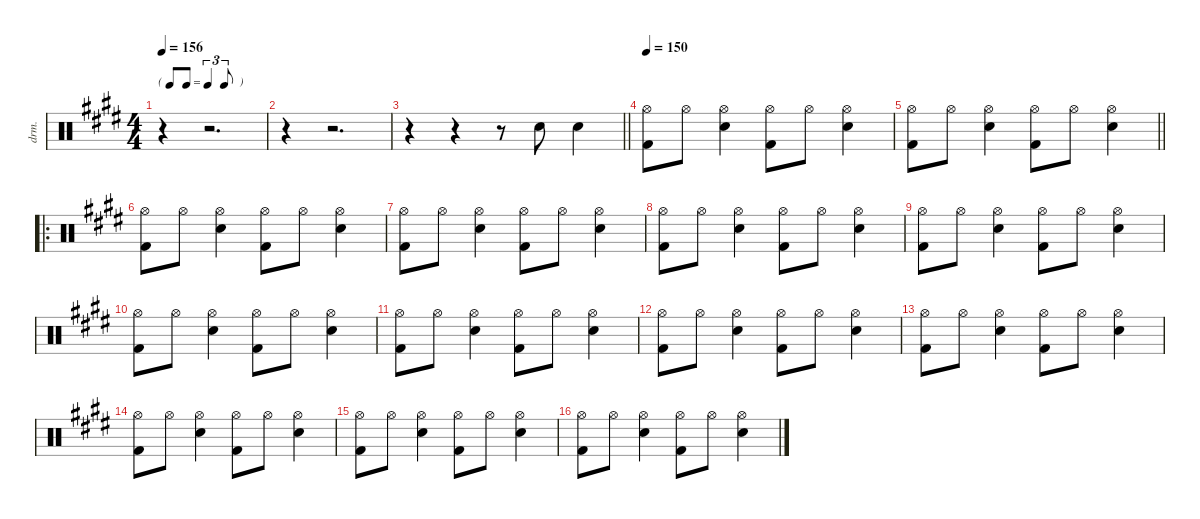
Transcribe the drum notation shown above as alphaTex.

\defaultSystemsLayout 4
\hideDynamics
\bracketExtendMode nobrackets
\otherSystemsTrackNameOrientation horizontal
\track ("Percussion" "drm.") {instrument percussion}
\staff {score}
\articulation defaults
\ts (4 4)
\beaming (8 2 2 2 2)
\tf triplet8th
\tempo 156
\clef neutral
\ks e
r.4{dy f} r.2{d} |
r.4 r.2{d} |
\barLineRight lightlight
r.4 r.4 r.8 "Snare (hit) 2"{acc forcenatural}.8 "Snare (hit) 2"{acc forcenatural}.4 |
\tempo 150
("Hi-Hat (open)"{acc forcenatural} "Kick (hit) 2"{acc forcenatural}).8{dy mf} "Hi-Hat (open)"{acc forcenatural}.8 ("Hi-Hat (open)"{acc forcenatural} "Snare (hit) 2"{acc forcenatural}).4 ("Hi-Hat (open)"{acc forcenatural} "Kick (hit) 2"{acc forcenatural}).8 "Hi-Hat (open)"{acc forcenatural}.8 ("Hi-Hat (open)"{acc forcenatural} "Snare (hit) 2"{acc forcenatural}).4 |
\barLineRight lightlight
("Hi-Hat (open)"{acc forcenatural} "Kick (hit) 2"{acc forcenatural}).8 "Hi-Hat (open)"{acc forcenatural}.8 ("Hi-Hat (open)"{acc forcenatural} "Snare (hit) 2"{acc forcenatural}).4 ("Hi-Hat (open)"{acc forcenatural} "Kick (hit) 2"{acc forcenatural}).8 "Hi-Hat (open)"{acc forcenatural}.8 ("Hi-Hat (open)"{acc forcenatural} "Snare (hit) 2"{acc forcenatural}).4 |
\ro
("Hi-Hat (open)"{acc forcenatural} "Kick (hit) 2"{acc forcenatural}).8 "Hi-Hat (open)"{acc forcenatural}.8 ("Hi-Hat (open)"{acc forcenatural} "Snare (hit) 2"{acc forcenatural}).4 ("Hi-Hat (open)"{acc forcenatural} "Kick (hit) 2"{acc forcenatural}).8 "Hi-Hat (open)"{acc forcenatural}.8 ("Hi-Hat (open)"{acc forcenatural} "Snare (hit) 2"{acc forcenatural}).4 |
("Hi-Hat (open)"{acc forcenatural} "Kick (hit) 2"{acc forcenatural}).8 "Hi-Hat (open)"{acc forcenatural}.8 ("Hi-Hat (open)"{acc forcenatural} "Snare (hit) 2"{acc forcenatural}).4 ("Hi-Hat (open)"{acc forcenatural} "Kick (hit) 2"{acc forcenatural}).8 "Hi-Hat (open)"{acc forcenatural}.8 ("Hi-Hat (open)"{acc forcenatural} "Snare (hit) 2"{acc forcenatural}).4 |
("Hi-Hat (open)"{acc forcenatural} "Kick (hit) 2"{acc forcenatural}).8 "Hi-Hat (open)"{acc forcenatural}.8 ("Hi-Hat (open)"{acc forcenatural} "Snare (hit) 2"{acc forcenatural}).4 ("Hi-Hat (open)"{acc forcenatural} "Kick (hit) 2"{acc forcenatural}).8 "Hi-Hat (open)"{acc forcenatural}.8 ("Hi-Hat (open)"{acc forcenatural} "Snare (hit) 2"{acc forcenatural}).4 |
("Hi-Hat (open)"{acc forcenatural} "Kick (hit) 2"{acc forcenatural}).8 "Hi-Hat (open)"{acc forcenatural}.8 ("Hi-Hat (open)"{acc forcenatural} "Snare (hit) 2"{acc forcenatural}).4 ("Hi-Hat (open)"{acc forcenatural} "Kick (hit) 2"{acc forcenatural}).8 "Hi-Hat (open)"{acc forcenatural}.8 ("Hi-Hat (open)"{acc forcenatural} "Snare (hit) 2"{acc forcenatural}).4 |
("Hi-Hat (open)"{acc forcenatural} "Kick (hit) 2"{acc forcenatural}).8 "Hi-Hat (open)"{acc forcenatural}.8 ("Hi-Hat (open)"{acc forcenatural} "Snare (hit) 2"{acc forcenatural}).4 ("Hi-Hat (open)"{acc forcenatural} "Kick (hit) 2"{acc forcenatural}).8 "Hi-Hat (open)"{acc forcenatural}.8 ("Hi-Hat (open)"{acc forcenatural} "Snare (hit) 2"{acc forcenatural}).4 |
("Hi-Hat (open)"{acc forcenatural} "Kick (hit) 2"{acc forcenatural}).8 "Hi-Hat (open)"{acc forcenatural}.8 ("Hi-Hat (open)"{acc forcenatural} "Snare (hit) 2"{acc forcenatural}).4 ("Hi-Hat (open)"{acc forcenatural} "Kick (hit) 2"{acc forcenatural}).8 "Hi-Hat (open)"{acc forcenatural}.8 ("Hi-Hat (open)"{acc forcenatural} "Snare (hit) 2"{acc forcenatural}).4 |
("Hi-Hat (open)"{acc forcenatural} "Kick (hit) 2"{acc forcenatural}).8 "Hi-Hat (open)"{acc forcenatural}.8 ("Hi-Hat (open)"{acc forcenatural} "Snare (hit) 2"{acc forcenatural}).4 ("Hi-Hat (open)"{acc forcenatural} "Kick (hit) 2"{acc forcenatural}).8 "Hi-Hat (open)"{acc forcenatural}.8 ("Hi-Hat (open)"{acc forcenatural} "Snare (hit) 2"{acc forcenatural}).4 |
("Hi-Hat (open)"{acc forcenatural} "Kick (hit) 2"{acc forcenatural}).8 "Hi-Hat (open)"{acc forcenatural}.8 ("Hi-Hat (open)"{acc forcenatural} "Snare (hit) 2"{acc forcenatural}).4 ("Hi-Hat (open)"{acc forcenatural} "Kick (hit) 2"{acc forcenatural}).8 "Hi-Hat (open)"{acc forcenatural}.8 ("Hi-Hat (open)"{acc forcenatural} "Snare (hit) 2"{acc forcenatural}).4 |
("Hi-Hat (open)"{acc forcenatural} "Kick (hit) 2"{acc forcenatural}).8 "Hi-Hat (open)"{acc forcenatural}.8 ("Hi-Hat (open)"{acc forcenatural} "Snare (hit) 2"{acc forcenatural}).4 ("Hi-Hat (open)"{acc forcenatural} "Kick (hit) 2"{acc forcenatural}).8 "Hi-Hat (open)"{acc forcenatural}.8 ("Hi-Hat (open)"{acc forcenatural} "Snare (hit) 2"{acc forcenatural}).4 |
("Hi-Hat (open)"{acc forcenatural} "Kick (hit) 2"{acc forcenatural}).8 "Hi-Hat (open)"{acc forcenatural}.8 ("Hi-Hat (open)"{acc forcenatural} "Snare (hit) 2"{acc forcenatural}).4 ("Hi-Hat (open)"{acc forcenatural} "Kick (hit) 2"{acc forcenatural}).8 "Hi-Hat (open)"{acc forcenatural}.8 ("Hi-Hat (open)"{acc forcenatural} "Snare (hit) 2"{acc forcenatural}).4 |
("Hi-Hat (open)"{acc forcenatural} "Kick (hit) 2"{acc forcenatural}).8 "Hi-Hat (open)"{acc forcenatural}.8 ("Hi-Hat (open)"{acc forcenatural} "Snare (hit) 2"{acc forcenatural}).4 ("Hi-Hat (open)"{acc forcenatural} "Kick (hit) 2"{acc forcenatural}).8 "Hi-Hat (open)"{acc forcenatural}.8 ("Hi-Hat (open)"{acc forcenatural} "Snare (hit) 2"{acc forcenatural}).4
